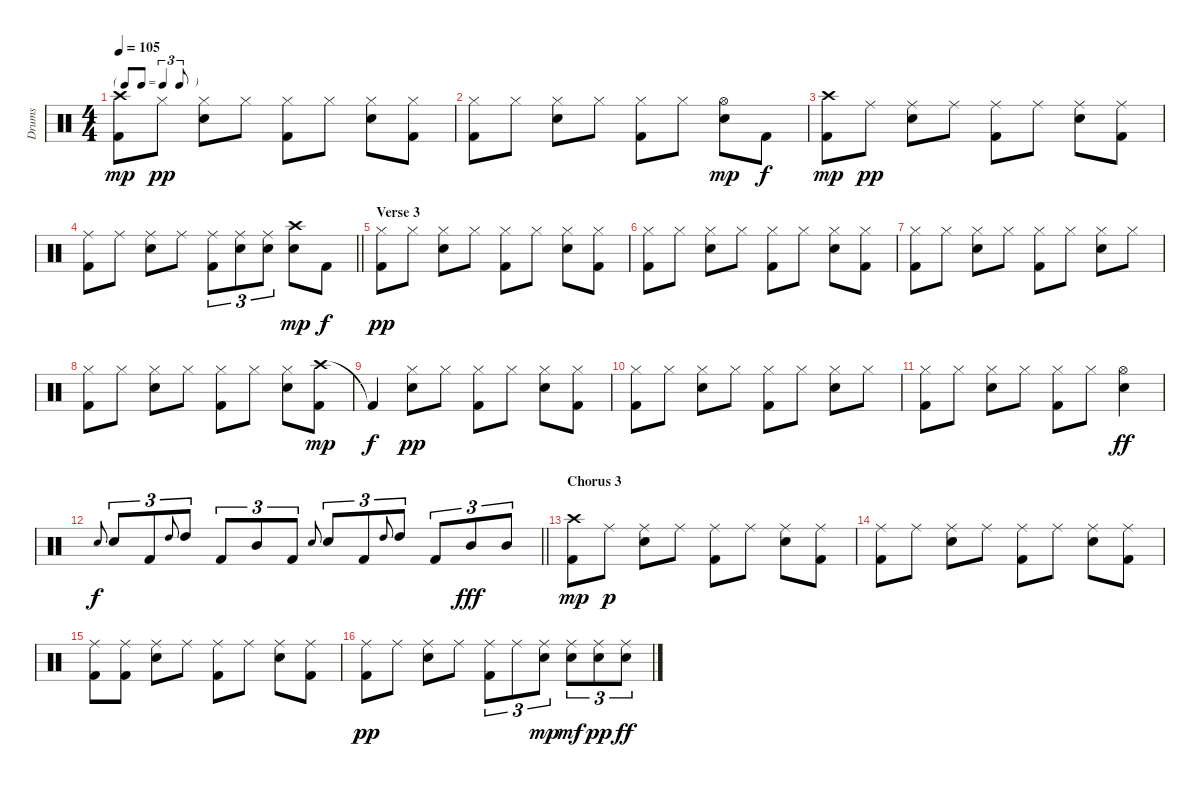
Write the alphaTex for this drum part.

\track ("Drums" "Drums") {instrument percussion}
\staff {score}
\articulation defaults
\ts (4 4)
\tf triplet8th
\tempo 105
\clef neutral
\ks c
("Crash high (hit)" "Kick (hit) 2").8{dy mp} "Hi-Hat (closed)".8{dy pp} ("Hi-Hat (closed)" "Electric Snare (hit)").8 "Hi-Hat (closed)".8 ("Hi-Hat (closed)" "Kick (hit) 2").8 "Hi-Hat (closed)".8 ("Hi-Hat (closed)" "Electric Snare (hit)").8 ("Hi-Hat (closed)" "Kick (hit) 2").8 |
("Hi-Hat (closed)" "Kick (hit) 2").8 "Hi-Hat (closed)".8 ("Hi-Hat (closed)" "Electric Snare (hit)").8 "Hi-Hat (closed)".8 ("Hi-Hat (closed)" "Kick (hit) 2").8 "Hi-Hat (closed)".8 ("Hi-Hat (open)" "Electric Snare (hit)").8{dy mp} "Kick (hit) 2".8{dy f} |
("Crash high (hit)" "Kick (hit) 2").8{dy mp} "Ride (middle)".8{dy pp} ("Ride (middle)" "Electric Snare (hit)").8 "Ride (middle)".8 ("Ride (middle)" "Kick (hit) 2").8 "Ride (middle)".8 ("Ride (middle)" "Electric Snare (hit)").8 ("Ride (middle)" "Kick (hit) 2").8 |
\barLineRight lightlight
("Ride (middle)" "Kick (hit) 2").8 "Ride (middle)".8 ("Ride (middle)" "Electric Snare (hit)").8 "Ride (middle)".8 ("Ride (middle)" "Kick (hit) 2").8{tu (3 2)} ("Ride (middle)" "Electric Snare (hit)").8{tu (3 2)} ("Ride (middle)" "Electric Snare (hit)").8{tu (3 2)} ("Crash high (hit)" "Electric Snare (hit)").8{dy mp} "Kick (hit) 2".8{dy f} |
\section ("" "Verse 3")
("Hi-Hat (closed)" "Kick (hit) 2").8{dy pp} "Hi-Hat (closed)".8 ("Hi-Hat (closed)" "Electric Snare (hit)").8 "Hi-Hat (closed)".8 ("Hi-Hat (closed)" "Kick (hit) 2").8 "Hi-Hat (closed)".8 ("Hi-Hat (closed)" "Electric Snare (hit)").8 ("Hi-Hat (closed)" "Kick (hit) 2").8 |
("Hi-Hat (closed)" "Kick (hit) 2").8 "Hi-Hat (closed)".8 ("Hi-Hat (closed)" "Electric Snare (hit)").8 "Hi-Hat (closed)".8 ("Hi-Hat (closed)" "Kick (hit) 2").8 "Hi-Hat (closed)".8 ("Hi-Hat (closed)" "Electric Snare (hit)").8 ("Hi-Hat (closed)" "Kick (hit) 2").8 |
("Hi-Hat (closed)" "Kick (hit) 2").8 "Hi-Hat (closed)".8 ("Hi-Hat (closed)" "Electric Snare (hit)").8 "Hi-Hat (closed)".8 ("Hi-Hat (closed)" "Kick (hit) 2").8 "Hi-Hat (closed)".8 ("Hi-Hat (closed)" "Electric Snare (hit)").8 "Hi-Hat (closed)".8 |
("Hi-Hat (closed)" "Kick (hit) 2").8 "Hi-Hat (closed)".8 ("Hi-Hat (closed)" "Electric Snare (hit)").8 "Hi-Hat (closed)".8 ("Hi-Hat (closed)" "Kick (hit) 2").8 "Hi-Hat (closed)".8 ("Hi-Hat (closed)" "Electric Snare (hit)").8 ("Crash high (hit)" "Kick (hit) 2").8{dy mp} |
"Kick (hit) 2"{t}.4{dy f} ("Hi-Hat (closed)" "Electric Snare (hit)").8{dy pp} "Hi-Hat (closed)".8 ("Hi-Hat (closed)" "Kick (hit) 2").8 "Hi-Hat (closed)".8 ("Hi-Hat (closed)" "Electric Snare (hit)").8 ("Hi-Hat (closed)" "Kick (hit) 2").8 |
("Hi-Hat (closed)" "Kick (hit) 2").8 "Hi-Hat (closed)".8 ("Hi-Hat (closed)" "Electric Snare (hit)").8 "Hi-Hat (closed)".8 ("Hi-Hat (closed)" "Kick (hit) 2").8 "Hi-Hat (closed)".8 ("Hi-Hat (closed)" "Electric Snare (hit)").8 "Hi-Hat (closed)".8 |
("Hi-Hat (closed)" "Kick (hit) 2").8 "Hi-Hat (closed)".8 ("Hi-Hat (closed)" "Electric Snare (hit)").8 "Hi-Hat (closed)".8 ("Hi-Hat (closed)" "Kick (hit) 2").8 "Hi-Hat (closed)".8 ("Hi-Hat (open)" "Electric Snare (hit)").4{dy ff} |
\barLineRight lightlight "Electric Snare (hit)".8{gr onbeat dy f} "Electric Snare (hit)".8{tu (3 2)} "Kick (hit) 2".8{tu (3 2)} "High Tom (hit)".8{gr onbeat} "High Tom (hit)".8{tu (3 2)} "Kick (hit) 2".8{tu (3 2)} "Mid Tom (hit)".8{tu (3 2)} "Kick (hit) 2".8{tu (3 2)} "Electric Snare (hit)".8{gr onbeat} "Electric Snare (hit)".8{tu (3 2)} "Kick (hit) 2".8{tu (3 2)} "High Tom (hit)".8{gr onbeat} "High Tom (hit)".8{tu (3 2)} "Kick (hit) 2".8{tu (3 2)} "Mid Tom (hit)".8{tu (3 2) dy fff} "Mid Tom (hit)".8{tu (3 2)}
|
\section ("" "Chorus 3")
("Crash high (hit)" "Kick (hit) 2").8{dy mp} "Ride (middle)".8{dy p} ("Ride (middle)" "Electric Snare (hit)").8 "Ride (middle)".8 ("Ride (middle)" "Kick (hit) 2").8 "Ride (middle)".8 ("Ride (middle)" "Electric Snare (hit)").8 ("Ride (middle)" "Kick (hit) 2").8 |
("Ride (middle)" "Kick (hit) 2").8 "Ride (middle)".8 ("Ride (middle)" "Electric Snare (hit)").8 "Ride (middle)".8 ("Ride (middle)" "Kick (hit) 2").8 "Ride (middle)".8 ("Ride (middle)" "Electric Snare (hit)").8 ("Ride (middle)" "Kick (hit) 2").8 |
("Ride (middle)" "Kick (hit) 2").8 ("Ride (middle)" "Kick (hit) 2").8 ("Ride (middle)" "Electric Snare (hit)").8 "Ride (middle)".8 ("Ride (middle)" "Kick (hit) 2").8 "Ride (middle)".8 ("Ride (middle)" "Electric Snare (hit)").8 ("Ride (middle)" "Kick (hit) 2").8 |
("Ride (middle)" "Kick (hit) 2").8{dy pp} "Ride (middle)".8 ("Ride (middle)" "Electric Snare (hit)").8 "Ride (middle)".8 ("Ride (middle)" "Kick (hit) 2").8{tu (3 2)} "Ride (middle)".8{tu (3 2)} ("Ride (middle)" "Electric Snare (hit)").8{tu (3 2) dy mp} ("Ride (middle)" "Electric Snare (hit)").8{tu (3 2) dy mf} ("Ride (middle)" "Electric Snare (hit)").8{tu (3 2) dy pp} ("Ride (middle)" "Electric Snare (hit)").8{tu (3 2) dy ff}
